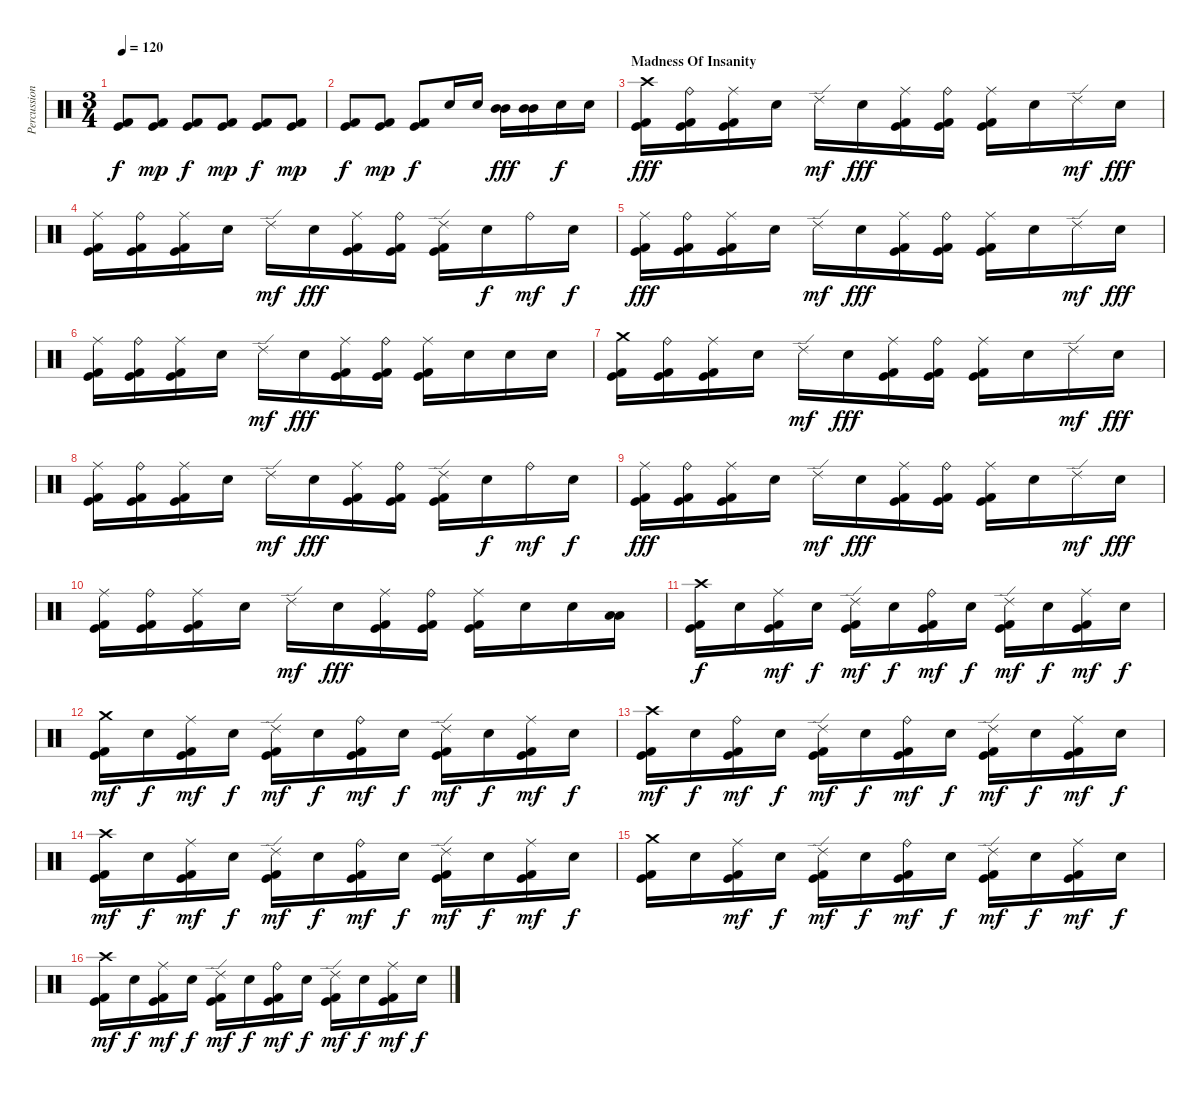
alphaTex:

\track ("Percussion" "Percussion") {instrument percussion}
\staff {score}
\articulation defaults
\ts (3 4)
\tempo 120
\clef neutral
\ks c
("Kick (hit)" "Kick (hit) 2").8{dy f} ("Kick (hit)" "Kick (hit) 2").8{dy mp} ("Kick (hit)" "Kick (hit) 2").8{dy f} ("Kick (hit)" "Kick (hit) 2").8{dy mp} ("Kick (hit)" "Kick (hit) 2").8{dy f} ("Kick (hit)" "Kick (hit) 2").8{dy mp} |
("Kick (hit)" "Kick (hit) 2").8{dy f} ("Kick (hit)" "Kick (hit) 2").8{dy mp} ("Kick (hit)" "Kick (hit) 2").8{dy f} "Snare (hit) 2".16 "Snare (hit) 2".16 ("Mid Tom (hit)" "Mid Tom (hit)").16{dy fff} ("Mid Tom (hit)" "Mid Tom (hit)").16 "Snare (hit) 2".16{dy f} "Snare (hit) 2".16 |
\section ("" "Madness Of Insanity")
("Crash high (hit)" "Kick (hit)" "Kick (hit) 2").16{dy fff volume 16} ("Ride (bell)" "Kick (hit)" "Kick (hit) 2").16 ("Ride (middle)" "Kick (hit)" "Kick (hit) 2").16 "Snare (hit) 2".16 "Ride (edge) 2".16{dy mf} "Snare (hit) 2".16{dy fff} ("Ride (middle)" "Kick (hit)" "Kick (hit) 2").16 ("Ride (bell)" "Kick (hit)" "Kick (hit) 2").16 ("Ride (middle)" "Kick (hit)" "Kick (hit) 2").16 "Snare (hit) 2".16 "Ride (edge) 2".16{dy mf} "Snare (hit) 2".16{dy fff} |
("Ride (middle)" "Kick (hit)" "Kick (hit) 2").16 ("Ride (bell)" "Kick (hit)" "Kick (hit) 2").16 ("Ride (middle)" "Kick (hit)" "Kick (hit) 2").16 "Snare (hit) 2".16 "Ride (edge) 2".16{dy mf} "Snare (hit) 2".16{dy fff} ("Ride (middle)" "Kick (hit)" "Kick (hit) 2").16 ("Ride (bell)" "Kick (hit)" "Kick (hit) 2").16 ("Ride (edge) 2" "Kick (hit)" "Kick (hit) 2").16 "Snare (hit) 2".16{dy f} "Ride (bell)".16{dy mf} "Snare (hit) 2".16{dy f} |
("Ride (middle)" "Kick (hit)" "Kick (hit) 2").16{dy fff} ("Ride (bell)" "Kick (hit)" "Kick (hit) 2").16 ("Ride (middle)" "Kick (hit)" "Kick (hit) 2").16 "Snare (hit) 2".16 "Ride (edge) 2".16{dy mf} "Snare (hit) 2".16{dy fff} ("Ride (middle)" "Kick (hit)" "Kick (hit) 2").16 ("Ride (bell)" "Kick (hit)" "Kick (hit) 2").16 ("Ride (middle)" "Kick (hit)" "Kick (hit) 2").16 "Snare (hit) 2".16 "Ride (edge) 2".16{dy mf} "Snare (hit) 2".16{dy fff} |
("Ride (middle)" "Kick (hit)" "Kick (hit) 2").16 ("Ride (bell)" "Kick (hit)" "Kick (hit) 2").16 ("Ride (middle)" "Kick (hit)" "Kick (hit) 2").16 "Snare (hit) 2".16 "Ride (edge) 2".16{dy mf} "Snare (hit) 2".16{dy fff} ("Ride (middle)" "Kick (hit)" "Kick (hit) 2").16 ("Ride (bell)" "Kick (hit)" "Kick (hit) 2").16 ("Ride (middle)" "Kick (hit)" "Kick (hit) 2").16 "Snare (hit) 2".16 "Snare (hit) 2".16 "Snare (hit) 2".16 |
("Crash medium (hit)" "Kick (hit)" "Kick (hit) 2").16 ("Ride (bell)" "Kick (hit)" "Kick (hit) 2").16 ("Ride (middle)" "Kick (hit)" "Kick (hit) 2").16 "Snare (hit) 2".16 "Ride (edge) 2".16{dy mf} "Snare (hit) 2".16{dy fff} ("Ride (middle)" "Kick (hit)" "Kick (hit) 2").16 ("Ride (bell)" "Kick (hit)" "Kick (hit) 2").16 ("Ride (middle)" "Kick (hit)" "Kick (hit) 2").16 "Snare (hit) 2".16 "Ride (edge) 2".16{dy mf} "Snare (hit) 2".16{dy fff} |
("Ride (middle)" "Kick (hit)" "Kick (hit) 2").16 ("Ride (bell)" "Kick (hit)" "Kick (hit) 2").16 ("Ride (middle)" "Kick (hit)" "Kick (hit) 2").16 "Snare (hit) 2".16 "Ride (edge) 2".16{dy mf} "Snare (hit) 2".16{dy fff} ("Ride (middle)" "Kick (hit)" "Kick (hit) 2").16 ("Ride (bell)" "Kick (hit)" "Kick (hit) 2").16 ("Ride (edge) 2" "Kick (hit)" "Kick (hit) 2").16 "Snare (hit) 2".16{dy f} "Ride (bell)".16{dy mf} "Snare (hit) 2".16{dy f} |
("Ride (middle)" "Kick (hit)" "Kick (hit) 2").16{dy fff} ("Ride (bell)" "Kick (hit)" "Kick (hit) 2").16 ("Ride (middle)" "Kick (hit)" "Kick (hit) 2").16 "Snare (hit) 2".16 "Ride (edge) 2".16{dy mf} "Snare (hit) 2".16{dy fff} ("Ride (middle)" "Kick (hit)" "Kick (hit) 2").16 ("Ride (bell)" "Kick (hit)" "Kick (hit) 2").16 ("Ride (middle)" "Kick (hit)" "Kick (hit) 2").16 "Snare (hit) 2".16 "Ride (edge) 2".16{dy mf} "Snare (hit) 2".16{dy fff} |
("Ride (middle)" "Kick (hit)" "Kick (hit) 2").16 ("Ride (bell)" "Kick (hit)" "Kick (hit) 2").16 ("Ride (middle)" "Kick (hit)" "Kick (hit) 2").16 "Snare (hit) 2".16 "Ride (edge) 2".16{dy mf} "Snare (hit) 2".16{dy fff} ("Ride (middle)" "Kick (hit)" "Kick (hit) 2").16 ("Ride (bell)" "Kick (hit)" "Kick (hit) 2").16 ("Ride (middle)" "Kick (hit)" "Kick (hit) 2").16 "Snare (hit) 2".16 "Snare (hit) 2".16 ("Low Tom (hit)" "Low Tom (hit)").16 |
("Crash high (hit)" "Kick (hit)" "Kick (hit) 2").16{dy f} "Snare (hit) 2".16 ("Ride (middle)" "Kick (hit)" "Kick (hit) 2").16{dy mf} "Snare (hit) 2".16{dy f} ("Ride (edge) 2" "Kick (hit)" "Kick (hit) 2").16{dy mf} "Snare (hit) 2".16{dy f} ("Ride (bell)" "Kick (hit)" "Kick (hit) 2").16{dy mf} "Snare (hit) 2".16{dy f} ("Ride (edge) 2" "Kick (hit)" "Kick (hit) 2").16{dy mf} "Snare (hit) 2".16{dy f} ("Ride (middle)" "Kick (hit)" "Kick (hit) 2").16{dy mf} "Snare (hit) 2".16{dy f} |
("Crash medium (hit)" "Kick (hit)" "Kick (hit) 2").16{dy mf} "Snare (hit) 2".16{dy f} ("Ride (middle)" "Kick (hit)" "Kick (hit) 2").16{dy mf} "Snare (hit) 2".16{dy f} ("Ride (edge) 2" "Kick (hit)" "Kick (hit) 2").16{dy mf} "Snare (hit) 2".16{dy f} ("Ride (bell)" "Kick (hit)" "Kick (hit) 2").16{dy mf} "Snare (hit) 2".16{dy f} ("Ride (edge) 2" "Kick (hit)" "Kick (hit) 2").16{dy mf} "Snare (hit) 2".16{dy f} ("Ride (middle)" "Kick (hit)" "Kick (hit) 2").16{dy mf} "Snare (hit) 2".16{dy f} |
("Crash high (hit)" "Kick (hit)" "Kick (hit) 2").16{dy mf} "Snare (hit) 2".16{dy f} ("Ride (bell)" "Kick (hit)" "Kick (hit) 2").16{dy mf} "Snare (hit) 2".16{dy f} ("Ride (edge) 2" "Kick (hit)" "Kick (hit) 2").16{dy mf} "Snare (hit) 2".16{dy f} ("Ride (bell)" "Kick (hit)" "Kick (hit) 2").16{dy mf} "Snare (hit) 2".16{dy f} ("Ride (edge) 2" "Kick (hit)" "Kick (hit) 2").16{dy mf} "Snare (hit) 2".16{dy f} ("Ride (middle)" "Kick (hit)" "Kick (hit) 2").16{dy mf} "Snare (hit) 2".16{dy f} |
("Crash high (hit)" "Kick (hit)" "Kick (hit) 2").16{dy mf} "Snare (hit) 2".16{dy f} ("Ride (middle)" "Kick (hit)" "Kick (hit) 2").16{dy mf} "Snare (hit) 2".16{dy f} ("Ride (edge) 2" "Kick (hit)" "Kick (hit) 2").16{dy mf} "Snare (hit) 2".16{dy f} ("Ride (bell)" "Kick (hit)" "Kick (hit) 2").16{dy mf} "Snare (hit) 2".16{dy f} ("Ride (edge) 2" "Kick (hit)" "Kick (hit) 2").16{dy mf} "Snare (hit) 2".16{dy f} ("Ride (middle)" "Kick (hit)" "Kick (hit) 2").16{dy mf} "Snare (hit) 2".16{dy f} |
("Crash medium (hit)" "Kick (hit)" "Kick (hit) 2").16 "Snare (hit) 2".16 ("Ride (middle)" "Kick (hit)" "Kick (hit) 2").16{dy mf} "Snare (hit) 2".16{dy f} ("Ride (edge) 2" "Kick (hit)" "Kick (hit) 2").16{dy mf} "Snare (hit) 2".16{dy f} ("Ride (bell)" "Kick (hit)" "Kick (hit) 2").16{dy mf} "Snare (hit) 2".16{dy f} ("Ride (edge) 2" "Kick (hit)" "Kick (hit) 2").16{dy mf} "Snare (hit) 2".16{dy f} ("Ride (middle)" "Kick (hit)" "Kick (hit) 2").16{dy mf} "Snare (hit) 2".16{dy f} |
("Crash high (hit)" "Kick (hit)" "Kick (hit) 2").16{dy mf} "Snare (hit) 2".16{dy f} ("Ride (middle)" "Kick (hit)" "Kick (hit) 2").16{dy mf} "Snare (hit) 2".16{dy f} ("Ride (edge) 2" "Kick (hit)" "Kick (hit) 2").16{dy mf} "Snare (hit) 2".16{dy f} ("Ride (bell)" "Kick (hit)" "Kick (hit) 2").16{dy mf} "Snare (hit) 2".16{dy f} ("Ride (edge) 2" "Kick (hit)" "Kick (hit) 2").16{dy mf} "Snare (hit) 2".16{dy f} ("Ride (middle)" "Kick (hit)" "Kick (hit) 2").16{dy mf} "Snare (hit) 2".16{dy f}
